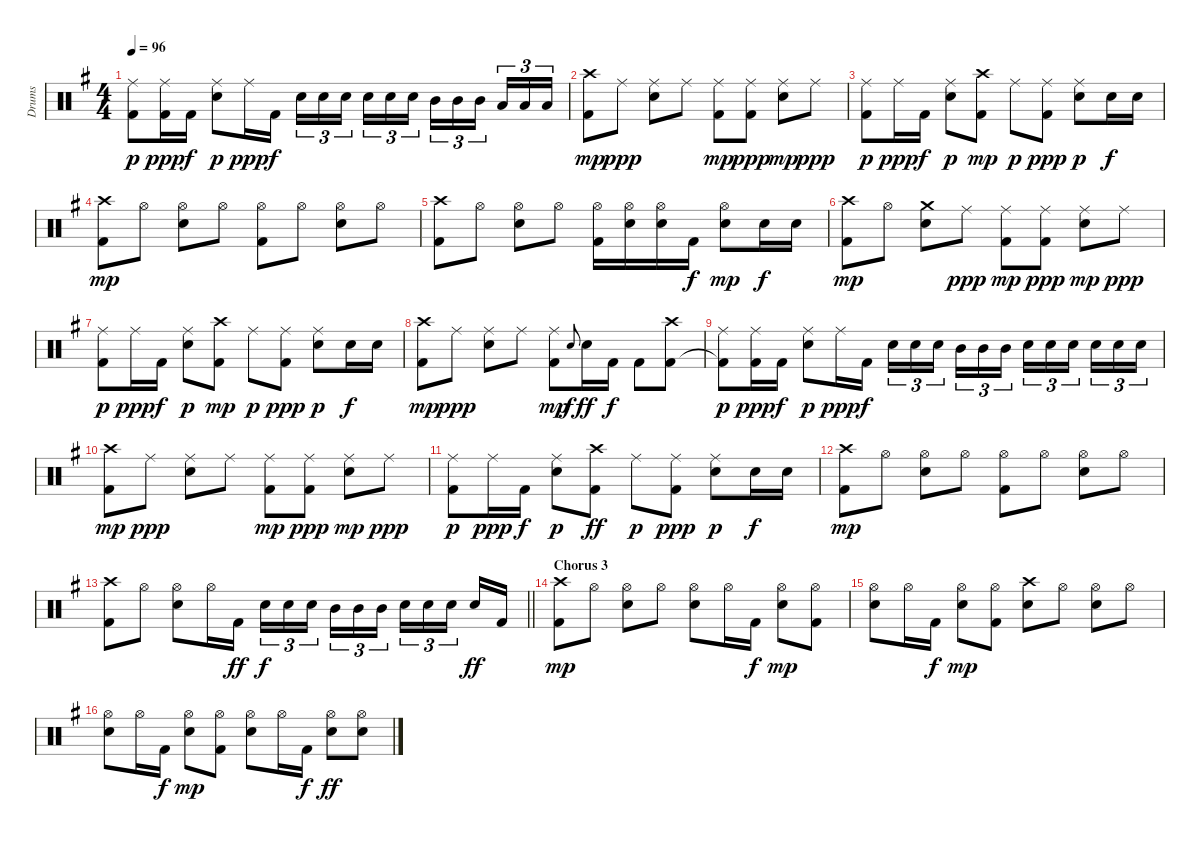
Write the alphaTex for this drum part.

\track ("Drums" "Drums") {instrument percussion}
\staff {score}
\articulation defaults
\ts (4 4)
\tempo 96
\clef neutral
\ks g
("Ride (middle)" "Kick (hit) 2"{t}).8{dy p} ("Ride (middle)" "Kick (hit) 2").16{dy ppp} "Kick (hit) 2".16{dy f} ("Ride (middle)" "Electric Snare (hit)").8{dy p} "Ride (middle)".16{dy ppp} "Kick (hit) 2".16{dy f} "Electric Snare (hit)".16{tu (3 2)} "Electric Snare (hit)".16{tu (3 2)} "Electric Snare (hit)".16{tu (3 2) beam splitsecondary} "Electric Snare (hit)".16{tu (3 2)} "Electric Snare (hit)".16{tu (3 2)} "Electric Snare (hit)".16{tu (3 2)} "Mid Tom (hit)".16{tu (3 2)} "Mid Tom (hit)".16{tu (3 2)} "Mid Tom (hit)".16{tu (3 2) beam splitsecondary} "Low Tom (hit)".16{tu (3 2)} "Low Tom (hit)".16{tu (3 2)} "Low Tom (hit)".16{tu (3 2)} |
("Kick (hit) 2" "Crash high (hit)").8{dy mp} "Ride (middle)".8{dy ppp} ("Electric Snare (hit)" "Ride (middle)").8 "Ride (middle)".8 ("Ride (middle)" "Kick (hit) 2").8{dy mp} ("Ride (middle)" "Kick (hit) 2").8{dy ppp} ("Ride (middle)" "Electric Snare (hit)").8{dy mp} "Ride (middle)".8{dy ppp} |
("Ride (middle)" "Kick (hit) 2").8{dy p} "Ride (middle)".16{dy ppp} "Kick (hit) 2".16{dy f} ("Ride (middle)" "Electric Snare (hit)").8{dy p} ("Crash high (hit)" "Kick (hit) 2").8{dy mp} "Ride (middle)".8{dy p} ("Ride (middle)" "Kick (hit) 2").8{dy ppp} ("Ride (middle)" "Electric Snare (hit)").8{dy p} "Electric Snare (hit)".16{dy f} "Electric Snare (hit)".16 |
("Crash high (hit)" "Kick (hit) 2").8{dy mp} "Hi-Hat (open)".8 ("Hi-Hat (open)" "Electric Snare (hit)").8 "Hi-Hat (open)".8 ("Hi-Hat (open)" "Kick (hit) 2").8 "Hi-Hat (open)".8 ("Hi-Hat (open)" "Electric Snare (hit)").8 "Hi-Hat (open)".8 |
("Crash high (hit)" "Kick (hit) 2").8 "Hi-Hat (open)".8 ("Hi-Hat (open)" "Electric Snare (hit)").8 "Hi-Hat (open)".8 ("Hi-Hat (open)" "Kick (hit) 2").16 ("Electric Snare (hit)" "Hi-Hat (open)").16 ("Electric Snare (hit)" "Hi-Hat (open)").16 "Kick (hit) 2".16{dy f} ("Electric Snare (hit)" "Hi-Hat (open)").8{dy mp} "Electric Snare (hit)".16{dy f} "Electric Snare (hit)".16 |
("Kick (hit) 2" "Crash high (hit)").8{dy mp} "Hi-Hat (open)".8 ("Electric Snare (hit)" "Crash medium (hit)").8 "Ride (middle)".8{dy ppp} ("Ride (middle)" "Kick (hit) 2").8{dy mp} ("Ride (middle)" "Kick (hit) 2").8{dy ppp} ("Ride (middle)" "Electric Snare (hit)").8{dy mp} "Ride (middle)".8{dy ppp} |
("Ride (middle)" "Kick (hit) 2").8{dy p} "Ride (middle)".16{dy ppp} "Kick (hit) 2".16{dy f} ("Ride (middle)" "Electric Snare (hit)").8{dy p} ("Crash high (hit)" "Kick (hit) 2").8{dy mp} "Ride (middle)".8{dy p} ("Ride (middle)" "Kick (hit) 2").8{dy ppp} ("Ride (middle)" "Electric Snare (hit)").8{dy p} "Electric Snare (hit)".16{dy f} "Electric Snare (hit)".16 |
("Kick (hit) 2" "Crash high (hit)").8{dy mp} "Ride (middle)".8{dy ppp} ("Electric Snare (hit)" "Ride (middle)").8 "Ride (middle)".8 ("Ride (middle)" "Kick (hit) 2").8{dy mp} "Electric Snare (hit)".8{gr onbeat dy f} "Electric Snare (hit)".16{dy ff} "Kick (hit) 2".16{dy f} "Kick (hit) 2".8 ("Crash high (hit)" "Kick (hit) 2").8 |
("Ride (middle)" "Kick (hit) 2"{t}).8{dy p} ("Ride (middle)" "Kick (hit) 2").16{dy ppp} "Kick (hit) 2".16{dy f} ("Ride (middle)" "Electric Snare (hit)").8{dy p} "Ride (middle)".16{dy ppp} "Kick (hit) 2".16{dy f} "Electric Snare (hit)".16{tu (3 2)} "Electric Snare (hit)".16{tu (3 2)} "Electric Snare (hit)".16{tu (3 2) beam splitsecondary} "Mid Tom (hit)".16{tu (3 2)} "Mid Tom (hit)".16{tu (3 2)} "Mid Tom (hit)".16{tu (3 2)} "Electric Snare (hit)".16{tu (3 2)} "Electric Snare (hit)".16{tu (3 2)} "Electric Snare (hit)".16{tu (3 2) beam splitsecondary} "Electric Snare (hit)".16{tu (3 2)} "Electric Snare (hit)".16{tu (3 2)} "Electric Snare (hit)".16{tu (3 2)} |
("Kick (hit) 2" "Crash high (hit)").8{dy mp} "Ride (middle)".8{dy ppp} ("Electric Snare (hit)" "Ride (middle)").8 "Ride (middle)".8 ("Ride (middle)" "Kick (hit) 2").8{dy mp} ("Ride (middle)" "Kick (hit) 2").8{dy ppp} ("Ride (middle)" "Electric Snare (hit)").8{dy mp} "Ride (middle)".8{dy ppp} |
("Ride (middle)" "Kick (hit) 2").8{dy p} "Ride (middle)".16{dy ppp} "Kick (hit) 2".16{dy f} ("Ride (middle)" "Electric Snare (hit)").8{dy p} ("Crash high (hit)" "Kick (hit) 2").8{dy ff} "Ride (middle)".8{dy p} ("Ride (middle)" "Kick (hit) 2").8{dy ppp} ("Ride (middle)" "Electric Snare (hit)").8{dy p} "Electric Snare (hit)".16{dy f} "Electric Snare (hit)".16 |
("Crash high (hit)" "Kick (hit) 2").8{dy mp} "Hi-Hat (open)".8 ("Hi-Hat (open)" "Electric Snare (hit)").8 "Hi-Hat (open)".8 ("Hi-Hat (open)" "Kick (hit) 2").8 "Hi-Hat (open)".8 ("Hi-Hat (open)" "Electric Snare (hit)").8 "Hi-Hat (open)".8 |
\barLineRight lightlight
("Crash high (hit)" "Kick (hit) 2").8 "Hi-Hat (open)".8 ("Hi-Hat (open)" "Electric Snare (hit)").8 "Hi-Hat (open)".16 "Kick (hit) 2".16{dy ff} "Electric Snare (hit)".16{tu (3 2) dy f} "Electric Snare (hit)".16{tu (3 2)} "Electric Snare (hit)".16{tu (3 2) beam splitsecondary} "Mid Tom (hit)".16{tu (3 2)} "Mid Tom (hit)".16{tu (3 2)} "Mid Tom (hit)".16{tu (3 2)} "Electric Snare (hit)".16{tu (3 2)} "Electric Snare (hit)".16{tu (3 2)} "Electric Snare (hit)".16{tu (3 2) beam splitsecondary} "Electric Snare (hit)".16{dy ff} "Kick (hit) 2".16 |
\section ("" "Chorus 3")
("Kick (hit) 2" "Crash high (hit)").8{dy mp} "Hi-Hat (open)".8 ("Hi-Hat (open)" "Electric Snare (hit)").8 "Hi-Hat (open)".8 ("Hi-Hat (open)" "Electric Snare (hit)").8 "Hi-Hat (open)".16 "Kick (hit) 2".16{dy f} ("Hi-Hat (open)" "Electric Snare (hit)").8{dy mp} ("Hi-Hat (open)" "Kick (hit) 2").8 |
("Hi-Hat (open)" "Electric Snare (hit)").8 "Hi-Hat (open)".16 "Kick (hit) 2".16{dy f} ("Electric Snare (hit)" "Hi-Hat (open)").8{dy mp} ("Hi-Hat (open)" "Kick (hit) 2").8 ("Crash high (hit)" "Electric Snare (hit)").8 "Hi-Hat (open)".8 ("Hi-Hat (open)" "Electric Snare (hit)").8 "Hi-Hat (open)".8 |
("Hi-Hat (open)" "Electric Snare (hit)").8 "Hi-Hat (open)".16 "Kick (hit) 2".16{dy f} ("Hi-Hat (open)" "Electric Snare (hit)").8{dy mp} ("Hi-Hat (open)" "Kick (hit) 2").8 ("Hi-Hat (open)" "Electric Snare (hit)").8 "Hi-Hat (open)".16 "Kick (hit) 2".16{dy f} ("Hi-Hat (open)" "Electric Snare (hit)").8{dy ff} ("Hi-Hat (open)" "Electric Snare (hit)").8
